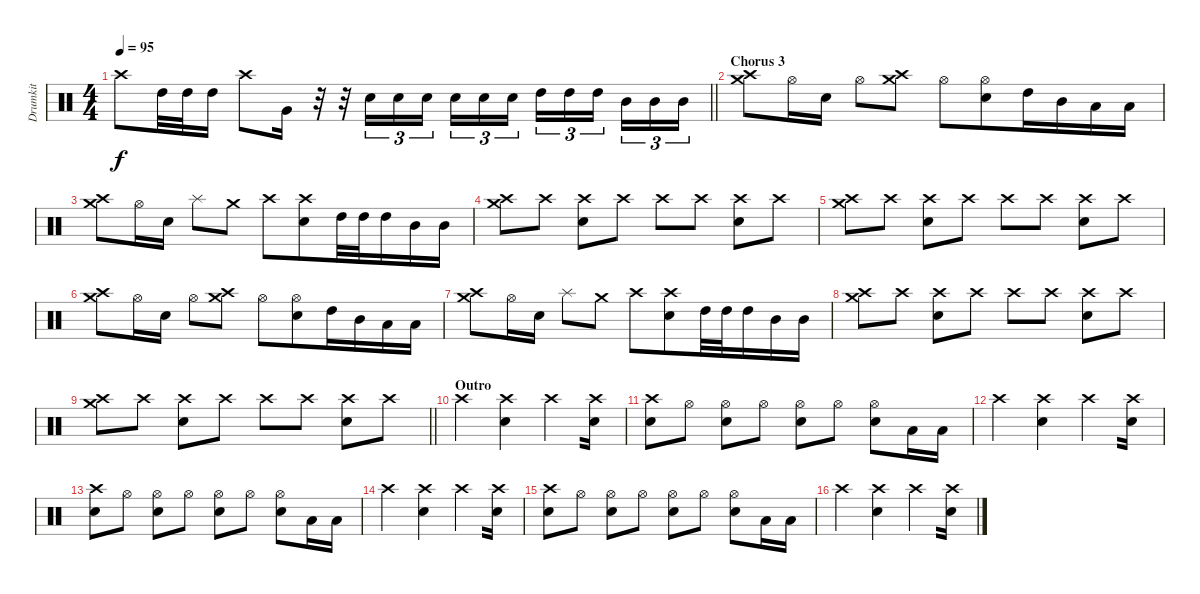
\track ("Drumkit" "Drumkit") {instrument percussion}
\staff {score}
\articulation defaults
\ts (4 4)
\tempo 95
\clef neutral
\barLineRight lightlight
\ks c "Crash high (hit)".8{dy f} "High Tom (hit)".32 "High Tom (hit)".32 "High Tom (hit)".16 "Crash high (hit)".8 "Very Low Tom (hit)".16
r.32{beam merge} r.32 "Electric Snare (hit)".16{tu (3 2)} "Electric Snare (hit)".16{tu (3 2) beam merge} "Electric Snare (hit)".16{tu (3 2) beam splitsecondary} "Electric Snare (hit)".16{tu (3 2)} "Electric Snare (hit)".16{tu (3 2)} "Electric Snare (hit)".16{tu (3 2)} "High Tom (hit)".16{tu (3 2)} "High Tom (hit)".16{tu (3 2)} "High Tom (hit)".16{tu (3 2) beam splitsecondary} "Mid Tom (hit)".16{tu (3 2)} "Mid Tom (hit)".16{tu (3 2) beam merge} "Mid Tom (hit)".16{tu (3 2)} |
\section ("" "Chorus 3")
("Crash medium (hit)" "Crash high (hit)").8 "Hi-Hat (open)".16 "Electric Snare (hit)".16 "Hi-Hat (open)".8 ("Crash medium (hit)" "Crash high (hit)").8 "Hi-Hat (open)".8 ("Hi-Hat (open)" "Electric Snare (hit)").8{beam merge} "High Tom (hit)".16 "Mid Tom (hit)".16 "Low Tom (hit)".16 "Low Tom (hit)".16 |
("Crash medium (hit)" "Crash high (hit)").8 "Hi-Hat (open)".16 "Electric Snare (hit)".16 "Splash (hit)".8 "Crash medium (hit)".8 "Crash high (hit)".8 ("Crash high (hit)" "Electric Snare (hit)").8{beam merge} "High Tom (hit)".32 "High Tom (hit)".32 "High Tom (hit)".16 "Mid Tom (hit)".16 "Mid Tom (hit)".16 |
("Crash medium (hit)" "Crash high (hit)").8 "Crash high (hit)".8 ("Crash high (hit)" "Electric Snare (hit)").8 "Crash high (hit)".8 "Crash high (hit)".8 "Crash high (hit)".8 ("Crash high (hit)" "Electric Snare (hit)").8{beam merge} "Crash high (hit)".8 |
("Crash medium (hit)" "Crash high (hit)").8{beam merge} "Crash high (hit)".8 ("Crash high (hit)" "Electric Snare (hit)").8 "Crash high (hit)".8 "Crash high (hit)".8{beam merge} "Crash high (hit)".8 ("Crash high (hit)" "Electric Snare (hit)").8 "Crash high (hit)".8 |
("Crash medium (hit)" "Crash high (hit)").8 "Hi-Hat (open)".16 "Electric Snare (hit)".16 "Hi-Hat (open)".8 ("Crash medium (hit)" "Crash high (hit)").8 "Hi-Hat (open)".8 ("Hi-Hat (open)" "Electric Snare (hit)").8{beam merge} "High Tom (hit)".16 "Mid Tom (hit)".16 "Low Tom (hit)".16 "Low Tom (hit)".16 |
("Crash medium (hit)" "Crash high (hit)").8 "Hi-Hat (open)".16 "Electric Snare (hit)".16 "Splash (hit)".8 "Crash medium (hit)".8 "Crash high (hit)".8 ("Crash high (hit)" "Electric Snare (hit)").8{beam merge} "High Tom (hit)".32 "High Tom (hit)".32 "High Tom (hit)".16 "Mid Tom (hit)".16 "Mid Tom (hit)".16 |
("Crash medium (hit)" "Crash high (hit)").8 "Crash high (hit)".8 ("Crash high (hit)" "Electric Snare (hit)").8 "Crash high (hit)".8 "Crash high (hit)".8 "Crash high (hit)".8 ("Crash high (hit)" "Electric Snare (hit)").8{beam merge} "Crash high (hit)".8 |
\barLineRight lightlight
("Crash medium (hit)" "Crash high (hit)").8{beam merge} "Crash high (hit)".8 ("Crash high (hit)" "Electric Snare (hit)").8 "Crash high (hit)".8 "Crash high (hit)".8{beam merge} "Crash high (hit)".8 ("Crash high (hit)" "Electric Snare (hit)").8 "Crash high (hit)".8 |
\section ("" "Outro")
"Crash high (hit)".4{beam merge} ("Crash high (hit)" "Electric Snare (hit)").4 "Crash high (hit)".4{beam merge} ("Crash high (hit)" "Electric Snare (hit)").16 |
("Crash high (hit)" "Electric Snare (hit)").8{beam merge} "Hi-Hat (open)".8 ("Hi-Hat (open)" "Electric Snare (hit)").8 "Hi-Hat (open)".8 ("Hi-Hat (open)" "Electric Snare (hit)").8{beam merge} "Hi-Hat (open)".8 ("Hi-Hat (open)" "Electric Snare (hit)").8{beam merge} "Low Floor Tom (hit)".16{beam merge} "Low Floor Tom (hit)".16 |
"Crash high (hit)".4{beam merge} ("Crash high (hit)" "Electric Snare (hit)").4 "Crash high (hit)".4{beam merge} ("Crash high (hit)" "Electric Snare (hit)").16 |
("Crash high (hit)" "Electric Snare (hit)").8{beam merge} "Hi-Hat (open)".8 ("Hi-Hat (open)" "Electric Snare (hit)").8 "Hi-Hat (open)".8 ("Hi-Hat (open)" "Electric Snare (hit)").8{beam merge} "Hi-Hat (open)".8 ("Hi-Hat (open)" "Electric Snare (hit)").8{beam merge} "Low Floor Tom (hit)".16{beam merge} "Low Floor Tom (hit)".16 |
"Crash high (hit)".4{beam merge} ("Crash high (hit)" "Electric Snare (hit)").4 "Crash high (hit)".4{beam merge} ("Crash high (hit)" "Electric Snare (hit)").16 |
("Crash high (hit)" "Electric Snare (hit)").8{beam merge} "Hi-Hat (open)".8 ("Hi-Hat (open)" "Electric Snare (hit)").8 "Hi-Hat (open)".8 ("Hi-Hat (open)" "Electric Snare (hit)").8{beam merge} "Hi-Hat (open)".8 ("Hi-Hat (open)" "Electric Snare (hit)").8{beam merge} "Low Floor Tom (hit)".16{beam merge} "Low Floor Tom (hit)".16 |
"Crash high (hit)".4{beam merge} ("Crash high (hit)" "Electric Snare (hit)").4 "Crash high (hit)".4{beam merge} ("Crash high (hit)" "Electric Snare (hit)").16
